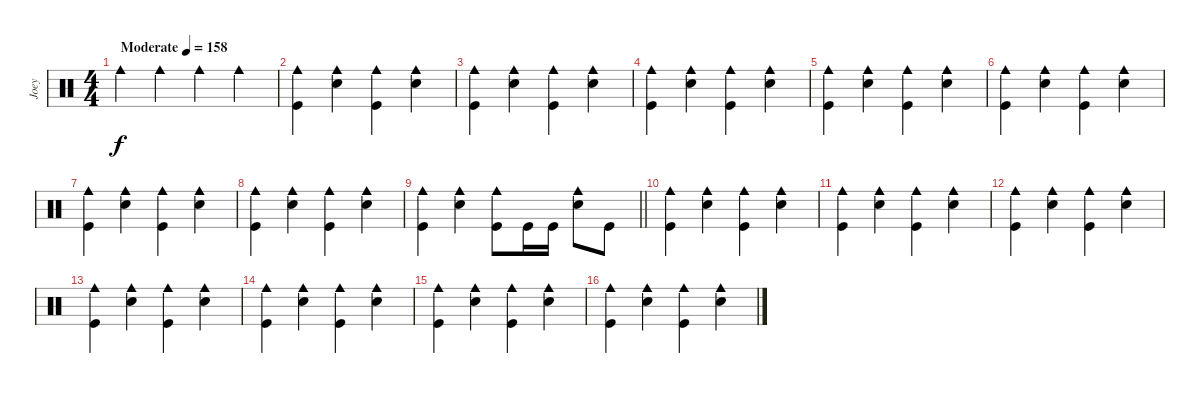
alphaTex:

\track ("Joey" "Joey") {instrument percussion}
\staff {score}
\articulation defaults
\ts (4 4)
\tempo (158 "Moderate")
\clef neutral
\ks c "Cowbell medium (hit)".4{dy f} "Cowbell medium (hit)".4 "Cowbell medium (hit)".4 "Cowbell medium (hit)".4
|
("Cowbell medium (hit)" "Kick (hit)").4 ("Cowbell medium (hit)" "Electric Snare (hit)").4 ("Cowbell medium (hit)" "Kick (hit)").4 ("Cowbell medium (hit)" "Electric Snare (hit)").4 |
("Cowbell medium (hit)" "Kick (hit)").4 ("Cowbell medium (hit)" "Electric Snare (hit)").4 ("Cowbell medium (hit)" "Kick (hit)").4 ("Cowbell medium (hit)" "Electric Snare (hit)").4 |
("Cowbell medium (hit)" "Kick (hit)").4 ("Cowbell medium (hit)" "Electric Snare (hit)").4 ("Cowbell medium (hit)" "Kick (hit)").4 ("Cowbell medium (hit)" "Electric Snare (hit)").4 |
("Cowbell medium (hit)" "Kick (hit)").4 ("Cowbell medium (hit)" "Electric Snare (hit)").4 ("Cowbell medium (hit)" "Kick (hit)").4 ("Cowbell medium (hit)" "Electric Snare (hit)").4 |
("Cowbell medium (hit)" "Kick (hit)").4 ("Cowbell medium (hit)" "Electric Snare (hit)").4 ("Cowbell medium (hit)" "Kick (hit)").4 ("Cowbell medium (hit)" "Electric Snare (hit)").4 |
("Cowbell medium (hit)" "Kick (hit)").4 ("Cowbell medium (hit)" "Electric Snare (hit)").4 ("Cowbell medium (hit)" "Kick (hit)").4 ("Cowbell medium (hit)" "Electric Snare (hit)").4 |
("Cowbell medium (hit)" "Kick (hit)").4 ("Cowbell medium (hit)" "Electric Snare (hit)").4 ("Cowbell medium (hit)" "Kick (hit)").4 ("Cowbell medium (hit)" "Electric Snare (hit)").4 |
\barLineRight lightlight
("Cowbell medium (hit)" "Kick (hit)").4 ("Cowbell medium (hit)" "Electric Snare (hit)").4 ("Cowbell medium (hit)" "Kick (hit)").8 "Kick (hit)".16 "Kick (hit)".16 ("Cowbell medium (hit)" "Electric Snare (hit)").8 "Kick (hit)".8 |
("Cowbell medium (hit)" "Kick (hit)").4 ("Cowbell medium (hit)" "Electric Snare (hit)").4 ("Cowbell medium (hit)" "Kick (hit)").4 ("Cowbell medium (hit)" "Electric Snare (hit)").4 |
("Cowbell medium (hit)" "Kick (hit)").4 ("Cowbell medium (hit)" "Electric Snare (hit)").4 ("Cowbell medium (hit)" "Kick (hit)").4 ("Cowbell medium (hit)" "Electric Snare (hit)").4 |
("Cowbell medium (hit)" "Kick (hit)").4 ("Cowbell medium (hit)" "Electric Snare (hit)").4 ("Cowbell medium (hit)" "Kick (hit)").4 ("Cowbell medium (hit)" "Electric Snare (hit)").4 |
("Cowbell medium (hit)" "Kick (hit)").4 ("Cowbell medium (hit)" "Electric Snare (hit)").4 ("Cowbell medium (hit)" "Kick (hit)").4 ("Cowbell medium (hit)" "Electric Snare (hit)").4 |
("Cowbell medium (hit)" "Kick (hit)").4 ("Cowbell medium (hit)" "Electric Snare (hit)").4 ("Cowbell medium (hit)" "Kick (hit)").4 ("Cowbell medium (hit)" "Electric Snare (hit)").4 |
("Cowbell medium (hit)" "Kick (hit)").4 ("Cowbell medium (hit)" "Electric Snare (hit)").4 ("Cowbell medium (hit)" "Kick (hit)").4 ("Cowbell medium (hit)" "Electric Snare (hit)").4 |
("Cowbell medium (hit)" "Kick (hit)").4 ("Cowbell medium (hit)" "Electric Snare (hit)").4 ("Cowbell medium (hit)" "Kick (hit)").4 ("Cowbell medium (hit)" "Electric Snare (hit)").4
